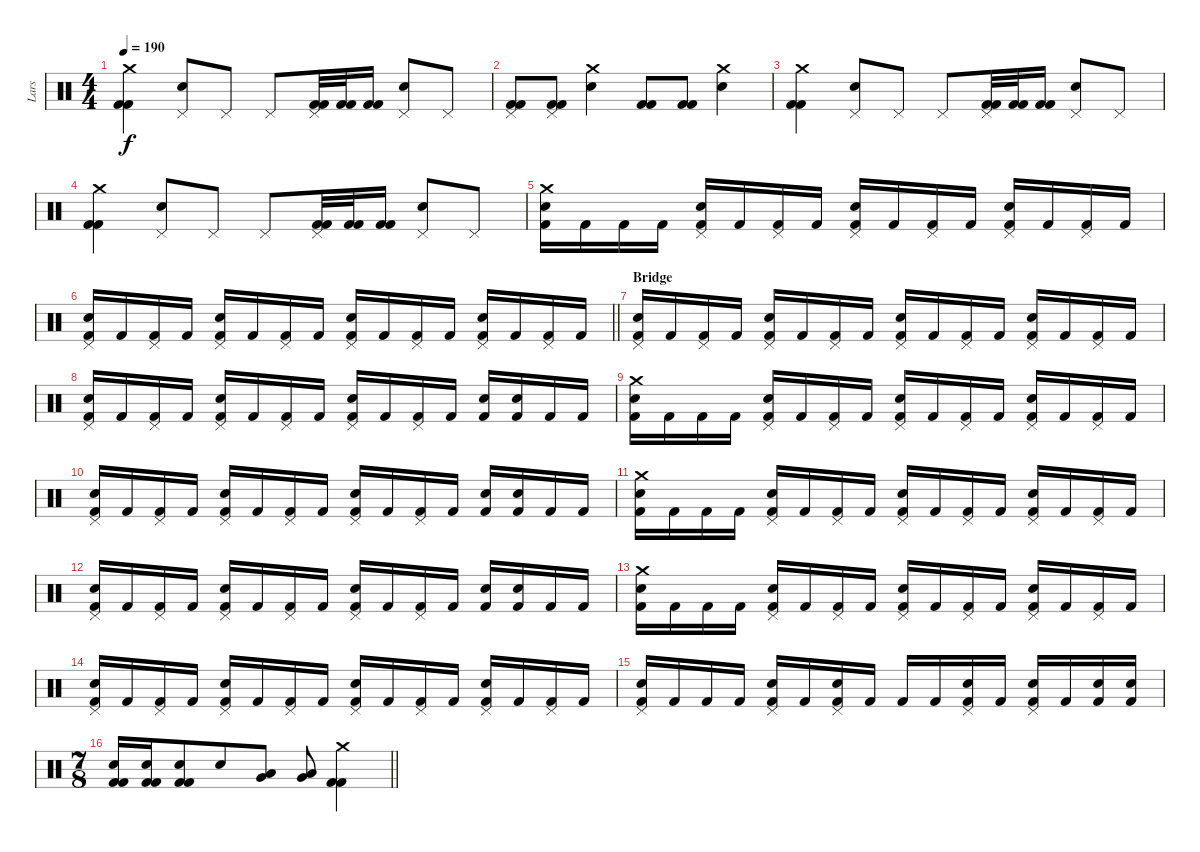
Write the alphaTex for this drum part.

\track ("Lars" "Lars") {instrument percussion}
\staff {score}
\articulation defaults
\ts (4 4)
\tempo 190
\clef neutral
\ks c
("Crash medium (hit)" "Kick (hit) 2" "Kick (hit) 2").4{dy f} ("Pedal Hi-Hat (hit)" "Electric Snare (hit)").8 "Pedal Hi-Hat (hit)".8 "Pedal Hi-Hat (hit)".8 ("Pedal Hi-Hat (hit)" "Kick (hit) 2" "Kick (hit) 2").32 ("Kick (hit) 2" "Kick (hit) 2").32 ("Kick (hit) 2" "Kick (hit) 2").16 ("Pedal Hi-Hat (hit)" "Electric Snare (hit)").8 "Pedal Hi-Hat (hit)".8 |
("Pedal Hi-Hat (hit)" "Kick (hit) 2" "Kick (hit) 2").8 ("Pedal Hi-Hat (hit)" "Kick (hit) 2" "Kick (hit) 2").8 ("Crash medium (hit)" "Electric Snare (hit)").4 ("Kick (hit) 2" "Kick (hit) 2").8 ("Kick (hit) 2" "Kick (hit) 2").8 ("Crash medium (hit)" "Electric Snare (hit)").4 |
("Crash medium (hit)" "Kick (hit) 2" "Kick (hit) 2").4 ("Pedal Hi-Hat (hit)" "Electric Snare (hit)").8 "Pedal Hi-Hat (hit)".8 "Pedal Hi-Hat (hit)".8 ("Pedal Hi-Hat (hit)" "Kick (hit) 2" "Kick (hit) 2").32 ("Kick (hit) 2" "Kick (hit) 2").32 ("Kick (hit) 2" "Kick (hit) 2").16 ("Pedal Hi-Hat (hit)" "Electric Snare (hit)").8 "Pedal Hi-Hat (hit)".8 |
("Crash medium (hit)" "Kick (hit) 2" "Kick (hit) 2").4 ("Pedal Hi-Hat (hit)" "Electric Snare (hit)").8 "Pedal Hi-Hat (hit)".8 "Pedal Hi-Hat (hit)".8 ("Pedal Hi-Hat (hit)" "Kick (hit) 2" "Kick (hit) 2").32 ("Kick (hit) 2" "Kick (hit) 2").32 ("Kick (hit) 2" "Kick (hit) 2").16 ("Pedal Hi-Hat (hit)" "Electric Snare (hit)").8 "Pedal Hi-Hat (hit)".8 |
("Crash medium (hit)" "Kick (hit) 2" "Electric Snare (hit)").16 "Kick (hit) 2".16 "Kick (hit) 2".16 "Kick (hit) 2".16 ("Pedal Hi-Hat (hit)" "Kick (hit) 2" "Electric Snare (hit)").16 "Kick (hit) 2".16 ("Pedal Hi-Hat (hit)" "Kick (hit) 2").16 "Kick (hit) 2".16 ("Pedal Hi-Hat (hit)" "Kick (hit) 2" "Electric Snare (hit)").16 "Kick (hit) 2".16 ("Pedal Hi-Hat (hit)" "Kick (hit) 2").16 "Kick (hit) 2".16 ("Pedal Hi-Hat (hit)" "Kick (hit) 2" "Electric Snare (hit)").16 "Kick (hit) 2".16 ("Pedal Hi-Hat (hit)" "Kick (hit) 2").16 "Kick (hit) 2".16 |
\barLineRight lightlight
("Pedal Hi-Hat (hit)" "Kick (hit) 2" "Electric Snare (hit)").16 "Kick (hit) 2".16 ("Pedal Hi-Hat (hit)" "Kick (hit) 2").16 "Kick (hit) 2".16 ("Pedal Hi-Hat (hit)" "Kick (hit) 2" "Electric Snare (hit)").16 "Kick (hit) 2".16 ("Pedal Hi-Hat (hit)" "Kick (hit) 2").16 "Kick (hit) 2".16 ("Pedal Hi-Hat (hit)" "Kick (hit) 2" "Electric Snare (hit)").16 "Kick (hit) 2".16 ("Pedal Hi-Hat (hit)" "Kick (hit) 2").16 "Kick (hit) 2".16 ("Pedal Hi-Hat (hit)" "Kick (hit) 2" "Electric Snare (hit)").16 "Kick (hit) 2".16 ("Pedal Hi-Hat (hit)" "Kick (hit) 2").16 "Kick (hit) 2".16 |
\section ("" "Bridge")
("Pedal Hi-Hat (hit)" "Kick (hit) 2" "Electric Snare (hit)").16 "Kick (hit) 2".16 ("Pedal Hi-Hat (hit)" "Kick (hit) 2").16 "Kick (hit) 2".16 ("Pedal Hi-Hat (hit)" "Kick (hit) 2" "Electric Snare (hit)").16 "Kick (hit) 2".16 ("Pedal Hi-Hat (hit)" "Kick (hit) 2").16 "Kick (hit) 2".16 ("Pedal Hi-Hat (hit)" "Kick (hit) 2" "Electric Snare (hit)").16 "Kick (hit) 2".16 ("Pedal Hi-Hat (hit)" "Kick (hit) 2").16 "Kick (hit) 2".16 ("Pedal Hi-Hat (hit)" "Kick (hit) 2" "Electric Snare (hit)").16 "Kick (hit) 2".16 ("Pedal Hi-Hat (hit)" "Kick (hit) 2").16 "Kick (hit) 2".16 |
("Pedal Hi-Hat (hit)" "Kick (hit) 2" "Electric Snare (hit)").16 "Kick (hit) 2".16 ("Pedal Hi-Hat (hit)" "Kick (hit) 2").16 "Kick (hit) 2".16 ("Pedal Hi-Hat (hit)" "Kick (hit) 2" "Electric Snare (hit)").16 "Kick (hit) 2".16 ("Pedal Hi-Hat (hit)" "Kick (hit) 2").16 "Kick (hit) 2".16 ("Pedal Hi-Hat (hit)" "Kick (hit) 2" "Electric Snare (hit)").16 "Kick (hit) 2".16 ("Pedal Hi-Hat (hit)" "Kick (hit) 2").16 "Kick (hit) 2".16 ("Kick (hit) 2" "Electric Snare (hit)").16 ("Kick (hit) 2" "Electric Snare (hit)").16 "Kick (hit) 2".16 "Kick (hit) 2".16 |
("Crash medium (hit)" "Kick (hit) 2" "Electric Snare (hit)").16 "Kick (hit) 2".16 "Kick (hit) 2".16 "Kick (hit) 2".16 ("Pedal Hi-Hat (hit)" "Kick (hit) 2" "Electric Snare (hit)").16 "Kick (hit) 2".16 ("Pedal Hi-Hat (hit)" "Kick (hit) 2").16 "Kick (hit) 2".16 ("Pedal Hi-Hat (hit)" "Kick (hit) 2" "Electric Snare (hit)").16 "Kick (hit) 2".16 ("Pedal Hi-Hat (hit)" "Kick (hit) 2").16 "Kick (hit) 2".16 ("Pedal Hi-Hat (hit)" "Kick (hit) 2" "Electric Snare (hit)").16 "Kick (hit) 2".16 ("Pedal Hi-Hat (hit)" "Kick (hit) 2").16 "Kick (hit) 2".16 |
("Pedal Hi-Hat (hit)" "Kick (hit) 2" "Electric Snare (hit)").16 "Kick (hit) 2".16 ("Pedal Hi-Hat (hit)" "Kick (hit) 2").16 "Kick (hit) 2".16 ("Pedal Hi-Hat (hit)" "Kick (hit) 2" "Electric Snare (hit)").16 "Kick (hit) 2".16 ("Pedal Hi-Hat (hit)" "Kick (hit) 2").16 "Kick (hit) 2".16 ("Pedal Hi-Hat (hit)" "Kick (hit) 2" "Electric Snare (hit)").16 "Kick (hit) 2".16 ("Pedal Hi-Hat (hit)" "Kick (hit) 2").16 "Kick (hit) 2".16 ("Kick (hit) 2" "Electric Snare (hit)").16 ("Kick (hit) 2" "Electric Snare (hit)").16 "Kick (hit) 2".16 "Kick (hit) 2".16 |
("Crash medium (hit)" "Kick (hit) 2" "Electric Snare (hit)").16 "Kick (hit) 2".16 "Kick (hit) 2".16 "Kick (hit) 2".16 ("Pedal Hi-Hat (hit)" "Kick (hit) 2" "Electric Snare (hit)").16 "Kick (hit) 2".16 ("Pedal Hi-Hat (hit)" "Kick (hit) 2").16 "Kick (hit) 2".16 ("Pedal Hi-Hat (hit)" "Kick (hit) 2" "Electric Snare (hit)").16 "Kick (hit) 2".16 ("Pedal Hi-Hat (hit)" "Kick (hit) 2").16 "Kick (hit) 2".16 ("Pedal Hi-Hat (hit)" "Kick (hit) 2" "Electric Snare (hit)").16 "Kick (hit) 2".16 ("Pedal Hi-Hat (hit)" "Kick (hit) 2").16 "Kick (hit) 2".16 |
("Pedal Hi-Hat (hit)" "Kick (hit) 2" "Electric Snare (hit)").16 "Kick (hit) 2".16 ("Pedal Hi-Hat (hit)" "Kick (hit) 2").16 "Kick (hit) 2".16 ("Pedal Hi-Hat (hit)" "Kick (hit) 2" "Electric Snare (hit)").16 "Kick (hit) 2".16 ("Pedal Hi-Hat (hit)" "Kick (hit) 2").16 "Kick (hit) 2".16 ("Pedal Hi-Hat (hit)" "Kick (hit) 2" "Electric Snare (hit)").16 "Kick (hit) 2".16 ("Pedal Hi-Hat (hit)" "Kick (hit) 2").16 "Kick (hit) 2".16 ("Kick (hit) 2" "Electric Snare (hit)").16 ("Kick (hit) 2" "Electric Snare (hit)").16 "Kick (hit) 2".16 "Kick (hit) 2".16 |
("Crash medium (hit)" "Kick (hit) 2" "Electric Snare (hit)").16 "Kick (hit) 2".16 "Kick (hit) 2".16 "Kick (hit) 2".16 ("Pedal Hi-Hat (hit)" "Kick (hit) 2" "Electric Snare (hit)").16 "Kick (hit) 2".16 ("Pedal Hi-Hat (hit)" "Kick (hit) 2").16 "Kick (hit) 2".16 ("Pedal Hi-Hat (hit)" "Kick (hit) 2" "Electric Snare (hit)").16 "Kick (hit) 2".16 ("Pedal Hi-Hat (hit)" "Kick (hit) 2").16 "Kick (hit) 2".16 ("Pedal Hi-Hat (hit)" "Kick (hit) 2" "Electric Snare (hit)").16 "Kick (hit) 2".16 ("Pedal Hi-Hat (hit)" "Kick (hit) 2").16 "Kick (hit) 2".16 |
("Pedal Hi-Hat (hit)" "Kick (hit) 2" "Electric Snare (hit)").16 "Kick (hit) 2".16 ("Pedal Hi-Hat (hit)" "Kick (hit) 2").16 "Kick (hit) 2".16 ("Pedal Hi-Hat (hit)" "Kick (hit) 2" "Electric Snare (hit)").16 "Kick (hit) 2".16 ("Pedal Hi-Hat (hit)" "Kick (hit) 2").16 "Kick (hit) 2".16 ("Pedal Hi-Hat (hit)" "Kick (hit) 2" "Electric Snare (hit)").16 "Kick (hit) 2".16 ("Pedal Hi-Hat (hit)" "Kick (hit) 2").16 "Kick (hit) 2".16 ("Pedal Hi-Hat (hit)" "Kick (hit) 2" "Electric Snare (hit)").16 "Kick (hit) 2".16 ("Pedal Hi-Hat (hit)" "Kick (hit) 2").16 "Kick (hit) 2".16 |
("Pedal Hi-Hat (hit)" "Kick (hit) 2" "Electric Snare (hit)").16 "Kick (hit) 2".16 "Kick (hit) 2".16 "Kick (hit) 2".16 ("Pedal Hi-Hat (hit)" "Kick (hit) 2" "Electric Snare (hit)").16 "Kick (hit) 2".16 ("Pedal Hi-Hat (hit)" "Kick (hit) 2" "Electric Snare (hit)").16 "Kick (hit) 2".16 "Kick (hit) 2".16 "Kick (hit) 2".16 ("Pedal Hi-Hat (hit)" "Kick (hit) 2" "Electric Snare (hit)").16 "Kick (hit) 2".16 ("Pedal Hi-Hat (hit)" "Kick (hit) 2" "Electric Snare (hit)").16 "Kick (hit) 2".16 ("Kick (hit) 2" "Electric Snare (hit)").16 ("Kick (hit) 2" "Electric Snare (hit)").16 |
\ts (7 8)
\barLineRight lightlight
("Electric Snare (hit)" "Kick (hit) 2" "Kick (hit) 2").16 ("Electric Snare (hit)" "Kick (hit) 2" "Kick (hit) 2").16 ("Electric Snare (hit)" "Kick (hit) 2" "Kick (hit) 2").8 "Electric Snare (hit)".8 ("Low Tom (hit)" "Very Low Tom (hit)").8 ("Low Tom (hit)" "Very Low Tom (hit)").8 ("Crash medium (hit)" "Kick (hit) 2" "Kick (hit) 2").4
